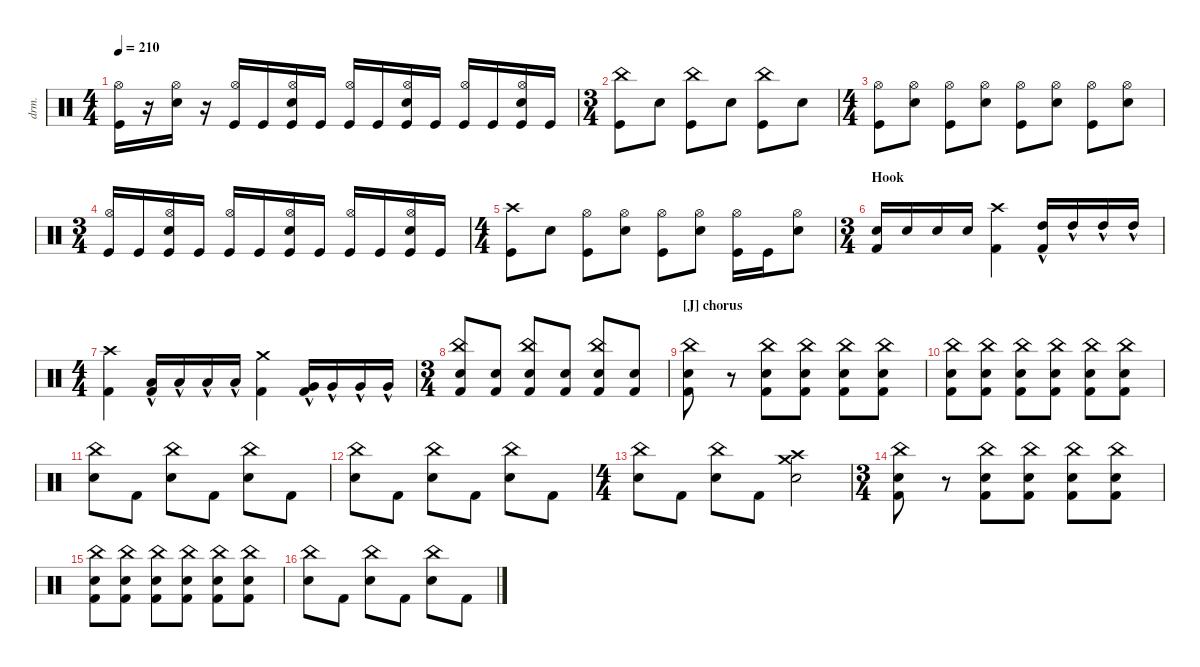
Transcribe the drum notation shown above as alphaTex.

\defaultSystemsLayout 4
\hideDynamics
\bracketExtendMode nobrackets
\otherSystemsTrackNameOrientation horizontal
\track ("Drumkit" "drm.") {instrument percussion}
\staff {score}
\articulation defaults
\ts (4 4)
\beaming (8 2 2 2 2)
\tempo 210
\clef neutral
\ks c
("Kick (hit)" "Hi-Hat (open)").16{dy mf beam Down} r.16{beam Down} ("Snare (hit) 2" "Hi-Hat (open)").16{beam Down} r.16{beam Down} ("Kick (hit)" "Hi-Hat (open)").16{beam Up} "Kick (hit)".16{beam Up} ("Kick (hit)" "Snare (hit) 2" "Hi-Hat (open)").16{beam Up} "Kick (hit)".16{beam Up} ("Kick (hit)" "Hi-Hat (open)").16{beam Up} "Kick (hit)".16{beam Up} ("Kick (hit)" "Snare (hit) 2" "Hi-Hat (open)").16{beam Up} "Kick (hit)".16{beam Up} ("Kick (hit)" "Hi-Hat (open)").16{beam Up} "Kick (hit)".16{beam Up} ("Kick (hit)" "Snare (hit) 2" "Hi-Hat (open)").16{beam Up} "Kick (hit)".16{beam Up} |
\ts (3 4)
\beaming (8 2 2 2)
("Kick (hit)" "China (hit)").8{beam Down} "Snare (hit) 2".8{beam Down} ("Kick (hit)" "China (hit)").8{beam Down} "Snare (hit) 2".8{beam Down} ("Kick (hit)" "China (hit)").8{beam Down} "Snare (hit) 2".8{beam Down} |
\ts (4 4)
\beaming (8 2 2 2 2)
("Kick (hit)" "Hi-Hat (open)").8{beam Down} ("Snare (hit) 2" "Hi-Hat (open)").8{beam Down} ("Kick (hit)" "Hi-Hat (open)").8{beam Down} ("Snare (hit) 2" "Hi-Hat (open)").8{beam Down} ("Kick (hit)" "Hi-Hat (open)").8{beam Down} ("Snare (hit) 2" "Hi-Hat (open)").8{beam Down} ("Kick (hit)" "Hi-Hat (open)").8{beam Down} ("Snare (hit) 2" "Hi-Hat (open)").8{beam Down} |
\ts (3 4)
\beaming (8 2 2 2)
("Kick (hit)" "Hi-Hat (open)").16{beam Up} "Kick (hit)".16{beam Up} ("Kick (hit)" "Snare (hit) 2" "Hi-Hat (open)").16{beam Up} "Kick (hit)".16{beam Up} ("Kick (hit)" "Hi-Hat (open)").16{beam Up} "Kick (hit)".16{beam Up} ("Kick (hit)" "Snare (hit) 2" "Hi-Hat (open)").16{beam Up} "Kick (hit)".16{beam Up} ("Kick (hit)" "Hi-Hat (open)").16{beam Up} "Kick (hit)".16{beam Up} ("Kick (hit)" "Snare (hit) 2" "Hi-Hat (open)").16{beam Up} "Kick (hit)".16{beam Up} |
\ts (4 4)
\beaming (8 2 2 2 2)
("Kick (hit)" "Crash high (hit)").8{beam Down} "Snare (hit) 2".8{beam Down} ("Kick (hit)" "Hi-Hat (open)").8{beam Down} ("Snare (hit) 2" "Hi-Hat (open)").8{beam Down} ("Kick (hit)" "Hi-Hat (open)").8{beam Down} ("Snare (hit) 2" "Hi-Hat (open)").8{beam Down} ("Kick (hit)" "Hi-Hat (open)").16{beam Down} "Kick (hit)".16{beam Down} ("Snare (hit) 2" "Hi-Hat (open)").8{beam Down} |
\ts (3 4)
\beaming (8 2 2 2)
\section ("" "Hook")
("Kick (hit) 2" "Snare (hit) 2").16{beam Up} "Snare (hit) 2".16{beam Up} "Snare (hit) 2".16{beam Up} "Snare (hit) 2".16{beam Up} ("Kick (hit) 2" "Crash high (hit)"{acc #}).4{beam Down} ("Kick (hit) 2" "High Tom (hit)"{hac}).16{beam Up} "High Tom (hit)"{hac}.16{beam Up} "High Tom (hit)"{hac}.16{beam Up} "High Tom (hit)"{hac}.16{beam Up} |
\ts (4 4)
\beaming (8 2 2 2 2)
("Kick (hit) 2" "Crash high (hit)"{acc #}).4{beam Down} ("Kick (hit) 2" "Low Tom (hit)"{hac}).16{beam Up} "Low Tom (hit)"{hac}.16{beam Up} "Low Tom (hit)"{hac}.16{beam Up} "Low Tom (hit)"{hac}.16{beam Up} ("Kick (hit) 2" "Crash medium (hit)").4{beam Down} ("Kick (hit) 2" "Very Low Tom (hit)"{hac}).16{beam Up} "Very Low Tom (hit)"{hac}.16{beam Up} "Very Low Tom (hit)"{hac}.16{beam Up} "Very Low Tom (hit)"{hac}.16{beam Up} |
\ts (3 4)
\beaming (8 2 2 2)
("Snare (hit) 2" "Kick (hit) 2" "China (hit)").8{beam Up} ("Snare (hit) 2" "Kick (hit) 2").8{beam Up} ("Snare (hit) 2" "Kick (hit) 2" "China (hit)").8{beam Up} ("Snare (hit) 2" "Kick (hit) 2").8{beam Up} ("Snare (hit) 2" "Kick (hit) 2" "China (hit)").8{beam Up} ("Snare (hit) 2" "Kick (hit) 2").8{beam Up} |
\section ("J" "chorus")
("Kick (hit) 2" "Snare (hit) 2" "China (hit)").8{beam Down} r.8{beam Down} ("Snare (hit) 2" "Kick (hit) 2" "China (hit)").8{beam Down} ("Snare (hit) 2" "Kick (hit) 2" "China (hit)").8{beam Down} ("Snare (hit) 2" "Kick (hit) 2" "China (hit)").8{beam Down} ("Snare (hit) 2" "Kick (hit) 2" "China (hit)").8{beam Down} |
("Kick (hit) 2" "Snare (hit) 2" "China (hit)").8{beam Down} ("Snare (hit) 2" "Kick (hit) 2" "China (hit)").8{beam Down} ("Kick (hit) 2" "Snare (hit) 2" "China (hit)").8{beam Down} ("Snare (hit) 2" "Kick (hit) 2" "China (hit)").8{beam Down} ("Kick (hit) 2" "Snare (hit) 2" "China (hit)").8{beam Down} ("Snare (hit) 2" "Kick (hit) 2" "China (hit)").8{beam Down} |
("Snare (hit) 2" "China (hit)").8{beam Down} "Kick (hit) 2".8{beam Down} ("Snare (hit) 2" "China (hit)").8{beam Down} "Kick (hit) 2".8{beam Down} ("Snare (hit) 2" "China (hit)").8{beam Down} "Kick (hit) 2".8{beam Down} |
("Snare (hit) 2" "China (hit)").8{beam Down} "Kick (hit) 2".8{beam Down} ("Snare (hit) 2" "China (hit)").8{beam Down} "Kick (hit) 2".8{beam Down} ("Snare (hit) 2" "China (hit)").8{beam Down} "Kick (hit) 2".8{beam Down} |
\ts (4 4)
\beaming (8 2 2 2 2)
("Snare (hit) 2" "China (hit)").8{beam Down} "Kick (hit) 2".8{beam Down} ("Snare (hit) 2" "China (hit)").8{beam Down} "Kick (hit) 2".8{beam Down} ("Crash high (hit)" "Crash medium (hit)" "Snare (hit) 2").2{beam Down} |
\ts (3 4)
\beaming (8 2 2 2)
("Kick (hit) 2" "Snare (hit) 2" "China (hit)").8{beam Down} r.8{beam Down} ("Snare (hit) 2" "Kick (hit) 2" "China (hit)").8{beam Down} ("Snare (hit) 2" "Kick (hit) 2" "China (hit)").8{beam Down} ("Snare (hit) 2" "Kick (hit) 2" "China (hit)").8{beam Down} ("Snare (hit) 2" "Kick (hit) 2" "China (hit)").8{beam Down} |
("Snare (hit) 2" "Kick (hit) 2" "China (hit)").8{beam Down} ("Snare (hit) 2" "Kick (hit) 2" "China (hit)").8{beam Down} ("Snare (hit) 2" "Kick (hit) 2" "China (hit)").8{beam Down} ("Snare (hit) 2" "Kick (hit) 2" "China (hit)").8{beam Down} ("Snare (hit) 2" "Kick (hit) 2" "China (hit)").8{beam Down} ("Snare (hit) 2" "Kick (hit) 2" "China (hit)").8{beam Down} |
("Snare (hit) 2" "China (hit)").8{beam Down} "Kick (hit) 2".8{beam Down} ("Snare (hit) 2" "China (hit)").8{beam Down} "Kick (hit) 2".8{beam Down} ("Snare (hit) 2" "China (hit)").8{beam Down} "Kick (hit) 2".8{beam Down}
